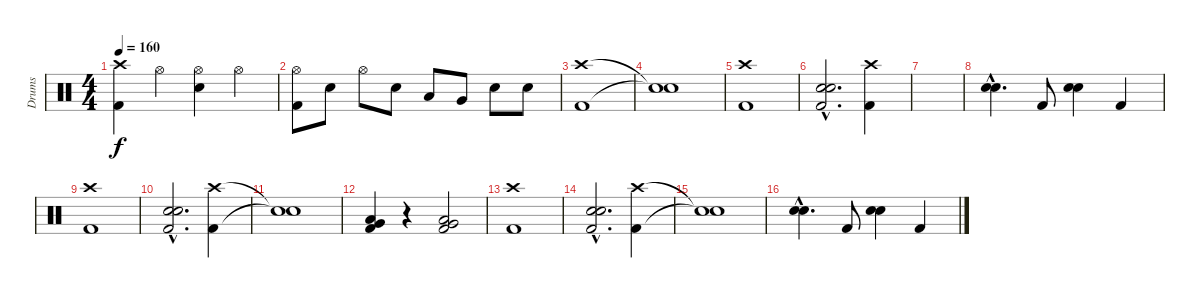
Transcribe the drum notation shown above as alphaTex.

\track ("Drums" "Drums") {instrument percussion}
\staff {score}
\articulation defaults
\ts (4 4)
\tempo 160
\clef neutral
\ks c
("Crash high (hit)" "Kick (hit) 2").4{dy f} "Hi-Hat (open)".4 ("Hi-Hat (open)" "Electric Snare (hit)").4 "Hi-Hat (open)".4 |
("Hi-Hat (open)" "Kick (hit) 2").8 "Electric Snare (hit)".8 "Hi-Hat (open)".8 "Electric Snare (hit)".8 "Low Tom (hit)".8 "Very Low Tom (hit)".8 "Electric Snare (hit)".8 "Electric Snare (hit)".8 |
("Crash high (hit)" "Kick (hit) 2").1 |
("Snare (hit)"{t} "Snare (hit)"{t}).1 |
("Crash high (hit)" "Kick (hit) 2").1 |
("Electric Snare (hit)"{hac} "Electric Snare (hit)"{hac} "Kick (hit) 2"{hac}).2{d bd 120} ("Crash high (hit)" "Kick (hit) 2").4 |
|
("Electric Snare (hit)"{hac} "Electric Snare (hit)"{hac}).4{d bd 120} "Kick (hit) 2".8 ("Electric Snare (hit)" "Electric Snare (hit)").4{bd 120} "Kick (hit) 2".4 |
("Crash high (hit)" "Kick (hit) 2").1 |
("Electric Snare (hit)"{hac} "Electric Snare (hit)"{hac} "Kick (hit) 2"{hac}).2{d bd 120} ("Crash high (hit)" "Kick (hit) 2").4 |
("Snare (hit)"{t} "Snare (hit)"{t}).1 |
("Very Low Tom (hit)" "Low Floor Tom (hit)" "Kick (hit) 2").4{bd 60} r.4 ("Very Low Tom (hit)" "Low Floor Tom (hit)" "Kick (hit) 2").2{bd 60} |
("Crash high (hit)" "Kick (hit) 2").1 |
("Electric Snare (hit)"{hac} "Electric Snare (hit)"{hac} "Kick (hit) 2"{hac}).2{d bd 120} ("Crash high (hit)" "Kick (hit) 2").4 |
("Snare (hit)"{t} "Snare (hit)"{t}).1 |
("Electric Snare (hit)"{hac} "Electric Snare (hit)"{hac}).4{d bd 120} "Kick (hit) 2".8 ("Electric Snare (hit)" "Electric Snare (hit)").4{bd 120} "Kick (hit) 2".4
